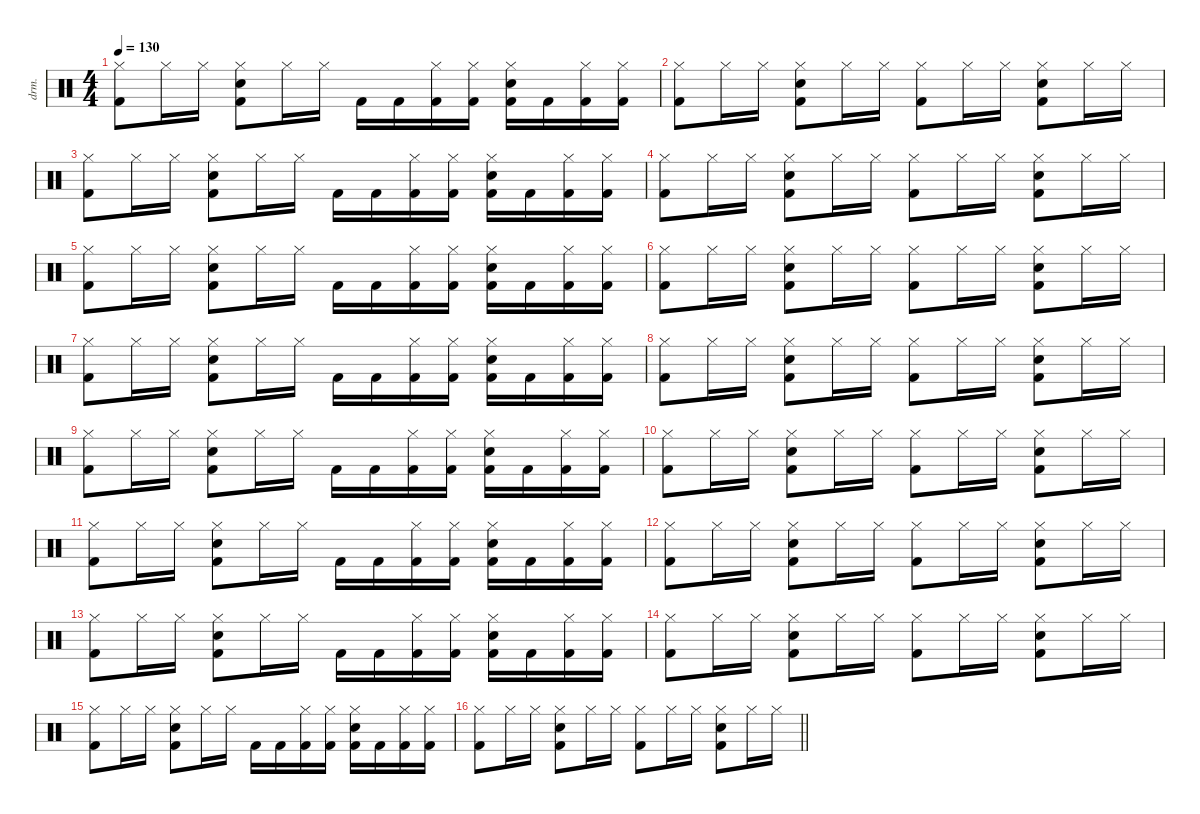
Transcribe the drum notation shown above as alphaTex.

\defaultSystemsLayout 4
\hideDynamics
\bracketExtendMode nobrackets
\otherSystemsTrackNameOrientation horizontal
\track ("Percussion" "drm.") {defaultSystemsLayout 4 instrument percussion}
\staff {score}
\articulation defaults
\ts (4 4)
\tempo 130
\clef neutral
\ks c
("Hi-Hat (closed)" "Kick (hit) 2").8{dy f beam Down} "Hi-Hat (closed)".16{beam Down} "Hi-Hat (closed)".16{beam Down} ("Hi-Hat (closed)" "Snare (hit) 2" "Kick (hit) 2").8{beam Down} "Hi-Hat (closed)".16{beam Down} "Hi-Hat (closed)".16{beam Down} "Kick (hit) 2".16{beam Down} "Kick (hit) 2".16{beam Down} ("Hi-Hat (closed)" "Kick (hit) 2").16{beam Down} ("Hi-Hat (closed)" "Kick (hit) 2").16{beam Down} ("Hi-Hat (closed)" "Snare (hit) 2" "Kick (hit) 2").16{beam Down} "Kick (hit) 2".16{beam Down} ("Hi-Hat (closed)" "Kick (hit) 2").16{beam Down} ("Hi-Hat (closed)" "Kick (hit) 2").16{beam Down} |
("Hi-Hat (closed)" "Kick (hit) 2").8{beam Down} "Hi-Hat (closed)".16{beam Down} "Hi-Hat (closed)".16{beam Down} ("Hi-Hat (closed)" "Snare (hit) 2" "Kick (hit) 2").8{beam Down} "Hi-Hat (closed)".16{beam Down} "Hi-Hat (closed)".16{beam Down} ("Hi-Hat (closed)" "Kick (hit) 2").8{beam Down} "Hi-Hat (closed)".16{beam Down} "Hi-Hat (closed)".16{beam Down} ("Hi-Hat (closed)" "Snare (hit) 2" "Kick (hit) 2").8{beam Down} "Hi-Hat (closed)".16{beam Down} "Hi-Hat (closed)".16{beam Down} |
("Hi-Hat (closed)" "Kick (hit) 2").8{beam Down} "Hi-Hat (closed)".16{beam Down} "Hi-Hat (closed)".16{beam Down} ("Hi-Hat (closed)" "Snare (hit) 2" "Kick (hit) 2").8{beam Down} "Hi-Hat (closed)".16{beam Down} "Hi-Hat (closed)".16{beam Down} "Kick (hit) 2".16{beam Down} "Kick (hit) 2".16{beam Down} ("Hi-Hat (closed)" "Kick (hit) 2").16{beam Down} ("Hi-Hat (closed)" "Kick (hit) 2").16{beam Down} ("Hi-Hat (closed)" "Snare (hit) 2" "Kick (hit) 2").16{beam Down} "Kick (hit) 2".16{beam Down} ("Hi-Hat (closed)" "Kick (hit) 2").16{beam Down} ("Hi-Hat (closed)" "Kick (hit) 2").16{beam Down} |
("Hi-Hat (closed)" "Kick (hit) 2").8{beam Down} "Hi-Hat (closed)".16{beam Down} "Hi-Hat (closed)".16{beam Down} ("Hi-Hat (closed)" "Snare (hit) 2" "Kick (hit) 2").8{beam Down} "Hi-Hat (closed)".16{beam Down} "Hi-Hat (closed)".16{beam Down} ("Hi-Hat (closed)" "Kick (hit) 2").8{beam Down} "Hi-Hat (closed)".16{beam Down} "Hi-Hat (closed)".16{beam Down} ("Hi-Hat (closed)" "Snare (hit) 2" "Kick (hit) 2").8{beam Down} "Hi-Hat (closed)".16{beam Down} "Hi-Hat (closed)".16{beam Down} |
("Hi-Hat (closed)" "Kick (hit) 2").8{beam Down} "Hi-Hat (closed)".16{beam Down} "Hi-Hat (closed)".16{beam Down} ("Hi-Hat (closed)" "Snare (hit) 2" "Kick (hit) 2").8{beam Down} "Hi-Hat (closed)".16{beam Down} "Hi-Hat (closed)".16{beam Down} "Kick (hit) 2".16{beam Down} "Kick (hit) 2".16{beam Down} ("Hi-Hat (closed)" "Kick (hit) 2").16{beam Down} ("Hi-Hat (closed)" "Kick (hit) 2").16{beam Down} ("Hi-Hat (closed)" "Snare (hit) 2" "Kick (hit) 2").16{beam Down} "Kick (hit) 2".16{beam Down} ("Hi-Hat (closed)" "Kick (hit) 2").16{beam Down} ("Hi-Hat (closed)" "Kick (hit) 2").16{beam Down} |
("Hi-Hat (closed)" "Kick (hit) 2").8{beam Down} "Hi-Hat (closed)".16{beam Down} "Hi-Hat (closed)".16{beam Down} ("Hi-Hat (closed)" "Snare (hit) 2" "Kick (hit) 2").8{beam Down} "Hi-Hat (closed)".16{beam Down} "Hi-Hat (closed)".16{beam Down} ("Hi-Hat (closed)" "Kick (hit) 2").8{beam Down} "Hi-Hat (closed)".16{beam Down} "Hi-Hat (closed)".16{beam Down} ("Hi-Hat (closed)" "Snare (hit) 2" "Kick (hit) 2").8{beam Down} "Hi-Hat (closed)".16{beam Down} "Hi-Hat (closed)".16{beam Down} |
("Hi-Hat (closed)" "Kick (hit) 2").8{beam Down} "Hi-Hat (closed)".16{beam Down} "Hi-Hat (closed)".16{beam Down} ("Hi-Hat (closed)" "Snare (hit) 2" "Kick (hit) 2").8{beam Down} "Hi-Hat (closed)".16{beam Down} "Hi-Hat (closed)".16{beam Down} "Kick (hit) 2".16{beam Down} "Kick (hit) 2".16{beam Down} ("Hi-Hat (closed)" "Kick (hit) 2").16{beam Down} ("Hi-Hat (closed)" "Kick (hit) 2").16{beam Down} ("Hi-Hat (closed)" "Snare (hit) 2" "Kick (hit) 2").16{beam Down} "Kick (hit) 2".16{beam Down} ("Hi-Hat (closed)" "Kick (hit) 2").16{beam Down} ("Hi-Hat (closed)" "Kick (hit) 2").16{beam Down} |
("Hi-Hat (closed)" "Kick (hit) 2").8{beam Down} "Hi-Hat (closed)".16{beam Down} "Hi-Hat (closed)".16{beam Down} ("Hi-Hat (closed)" "Snare (hit) 2" "Kick (hit) 2").8{beam Down} "Hi-Hat (closed)".16{beam Down} "Hi-Hat (closed)".16{beam Down} ("Hi-Hat (closed)" "Kick (hit) 2").8{beam Down} "Hi-Hat (closed)".16{beam Down} "Hi-Hat (closed)".16{beam Down} ("Hi-Hat (closed)" "Snare (hit) 2" "Kick (hit) 2").8{beam Down} "Hi-Hat (closed)".16{beam Down} "Hi-Hat (closed)".16{beam Down} |
("Hi-Hat (closed)" "Kick (hit) 2").8{beam Down} "Hi-Hat (closed)".16{beam Down} "Hi-Hat (closed)".16{beam Down} ("Hi-Hat (closed)" "Snare (hit) 2" "Kick (hit) 2").8{beam Down} "Hi-Hat (closed)".16{beam Down} "Hi-Hat (closed)".16{beam Down} "Kick (hit) 2".16{beam Down} "Kick (hit) 2".16{beam Down} ("Hi-Hat (closed)" "Kick (hit) 2").16{beam Down} ("Hi-Hat (closed)" "Kick (hit) 2").16{beam Down} ("Hi-Hat (closed)" "Snare (hit) 2" "Kick (hit) 2").16{beam Down} "Kick (hit) 2".16{beam Down} ("Hi-Hat (closed)" "Kick (hit) 2").16{beam Down} ("Hi-Hat (closed)" "Kick (hit) 2").16{beam Down} |
("Hi-Hat (closed)" "Kick (hit) 2").8{beam Down} "Hi-Hat (closed)".16{beam Down} "Hi-Hat (closed)".16{beam Down} ("Hi-Hat (closed)" "Snare (hit) 2" "Kick (hit) 2").8{beam Down} "Hi-Hat (closed)".16{beam Down} "Hi-Hat (closed)".16{beam Down} ("Hi-Hat (closed)" "Kick (hit) 2").8{beam Down} "Hi-Hat (closed)".16{beam Down} "Hi-Hat (closed)".16{beam Down} ("Hi-Hat (closed)" "Snare (hit) 2" "Kick (hit) 2").8{beam Down} "Hi-Hat (closed)".16{beam Down} "Hi-Hat (closed)".16{beam Down} |
("Hi-Hat (closed)" "Kick (hit) 2").8{beam Down} "Hi-Hat (closed)".16{beam Down} "Hi-Hat (closed)".16{beam Down} ("Hi-Hat (closed)" "Snare (hit) 2" "Kick (hit) 2").8{beam Down} "Hi-Hat (closed)".16{beam Down} "Hi-Hat (closed)".16{beam Down} "Kick (hit) 2".16{beam Down} "Kick (hit) 2".16{beam Down} ("Hi-Hat (closed)" "Kick (hit) 2").16{beam Down} ("Hi-Hat (closed)" "Kick (hit) 2").16{beam Down} ("Hi-Hat (closed)" "Snare (hit) 2" "Kick (hit) 2").16{beam Down} "Kick (hit) 2".16{beam Down} ("Hi-Hat (closed)" "Kick (hit) 2").16{beam Down} ("Hi-Hat (closed)" "Kick (hit) 2").16{beam Down} |
("Hi-Hat (closed)" "Kick (hit) 2").8{beam Down} "Hi-Hat (closed)".16{beam Down} "Hi-Hat (closed)".16{beam Down} ("Hi-Hat (closed)" "Snare (hit) 2" "Kick (hit) 2").8{beam Down} "Hi-Hat (closed)".16{beam Down} "Hi-Hat (closed)".16{beam Down} ("Hi-Hat (closed)" "Kick (hit) 2").8{beam Down} "Hi-Hat (closed)".16{beam Down} "Hi-Hat (closed)".16{beam Down} ("Hi-Hat (closed)" "Snare (hit) 2" "Kick (hit) 2").8{beam Down} "Hi-Hat (closed)".16{beam Down} "Hi-Hat (closed)".16{beam Down} |
("Hi-Hat (closed)" "Kick (hit) 2").8{beam Down} "Hi-Hat (closed)".16{beam Down} "Hi-Hat (closed)".16{beam Down} ("Hi-Hat (closed)" "Snare (hit) 2" "Kick (hit) 2").8{beam Down} "Hi-Hat (closed)".16{beam Down} "Hi-Hat (closed)".16{beam Down} "Kick (hit) 2".16{beam Down} "Kick (hit) 2".16{beam Down} ("Hi-Hat (closed)" "Kick (hit) 2").16{beam Down} ("Hi-Hat (closed)" "Kick (hit) 2").16{beam Down} ("Hi-Hat (closed)" "Snare (hit) 2" "Kick (hit) 2").16{beam Down} "Kick (hit) 2".16{beam Down} ("Hi-Hat (closed)" "Kick (hit) 2").16{beam Down} ("Hi-Hat (closed)" "Kick (hit) 2").16{beam Down} |
("Hi-Hat (closed)" "Kick (hit) 2").8{beam Down} "Hi-Hat (closed)".16{beam Down} "Hi-Hat (closed)".16{beam Down} ("Hi-Hat (closed)" "Snare (hit) 2" "Kick (hit) 2").8{beam Down} "Hi-Hat (closed)".16{beam Down} "Hi-Hat (closed)".16{beam Down} ("Hi-Hat (closed)" "Kick (hit) 2").8{beam Down} "Hi-Hat (closed)".16{beam Down} "Hi-Hat (closed)".16{beam Down} ("Hi-Hat (closed)" "Snare (hit) 2" "Kick (hit) 2").8{beam Down} "Hi-Hat (closed)".16{beam Down} "Hi-Hat (closed)".16{beam Down} |
("Hi-Hat (closed)" "Kick (hit) 2").8{beam Down} "Hi-Hat (closed)".16{beam Down} "Hi-Hat (closed)".16{beam Down} ("Hi-Hat (closed)" "Snare (hit) 2" "Kick (hit) 2").8{beam Down} "Hi-Hat (closed)".16{beam Down} "Hi-Hat (closed)".16{beam Down} "Kick (hit) 2".16{beam Down} "Kick (hit) 2".16{beam Down} ("Hi-Hat (closed)" "Kick (hit) 2").16{beam Down} ("Hi-Hat (closed)" "Kick (hit) 2").16{beam Down} ("Hi-Hat (closed)" "Snare (hit) 2" "Kick (hit) 2").16{beam Down} "Kick (hit) 2".16{beam Down} ("Hi-Hat (closed)" "Kick (hit) 2").16{beam Down} ("Hi-Hat (closed)" "Kick (hit) 2").16{beam Down} |
\barLineRight lightlight
("Hi-Hat (closed)" "Kick (hit) 2").8{beam Down} "Hi-Hat (closed)".16{beam Down} "Hi-Hat (closed)".16{beam Down} ("Hi-Hat (closed)" "Snare (hit) 2" "Kick (hit) 2").8{beam Down} "Hi-Hat (closed)".16{beam Down} "Hi-Hat (closed)".16{beam Down} ("Hi-Hat (closed)" "Kick (hit) 2").8{beam Down} "Hi-Hat (closed)".16{beam Down} "Hi-Hat (closed)".16{beam Down} ("Hi-Hat (closed)" "Snare (hit) 2" "Kick (hit) 2").8{beam Down} "Hi-Hat (closed)".16{beam Down} "Hi-Hat (closed)".16{beam Down}
